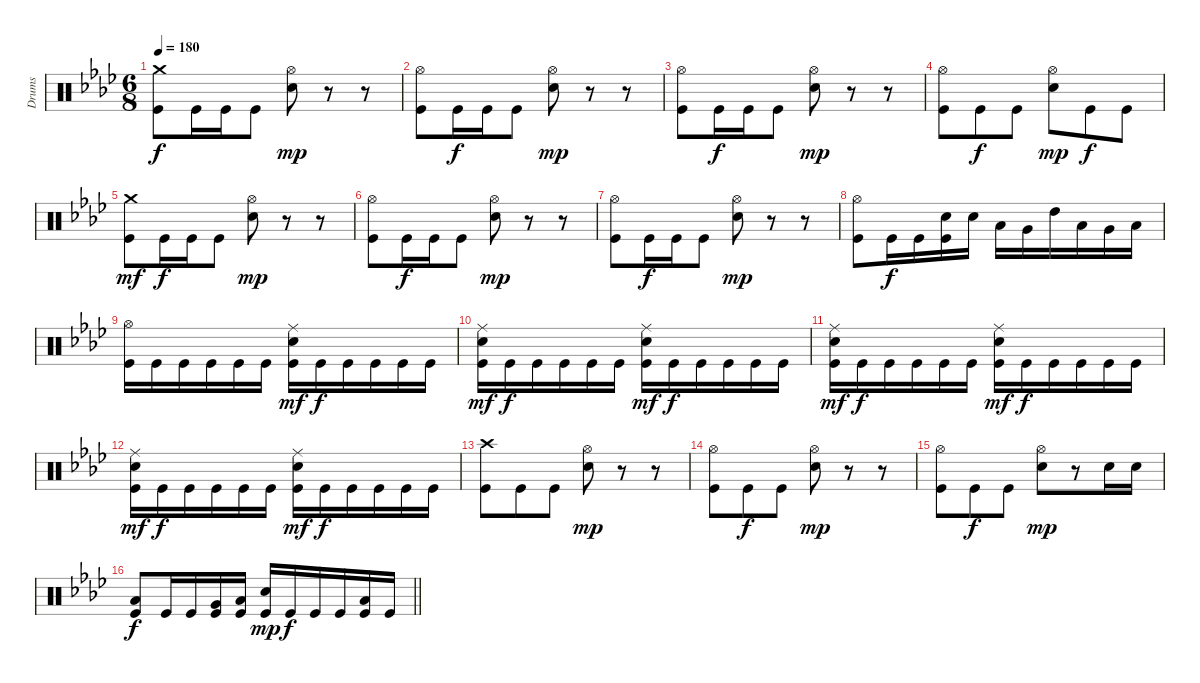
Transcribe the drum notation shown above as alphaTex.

\track ("Drums" "Drums") {instrument percussion}
\staff {score}
\articulation defaults
\ts (6 8)
\tempo 180
\clef neutral
\ks fminor
("Crash medium (hit)" "Kick (hit)").8{dy f} "Kick (hit)".16 "Kick (hit)".16 "Kick (hit)".8 ("Hi-Hat (open)" "Snare (hit) 2").8{dy mp} r.8 r.8 |
("Hi-Hat (open)" "Kick (hit)").8 "Kick (hit)".16{dy f} "Kick (hit)".16 "Kick (hit)".8 ("Hi-Hat (open)" "Snare (hit) 2").8{dy mp} r.8 r.8 |
("Hi-Hat (open)" "Kick (hit)").8 "Kick (hit)".16{dy f} "Kick (hit)".16 "Kick (hit)".8 ("Hi-Hat (open)" "Snare (hit) 2").8{dy mp} r.8 r.8 |
("Hi-Hat (open)" "Kick (hit)").8 "Kick (hit)".8{dy f} "Kick (hit)".8 ("Hi-Hat (open)" "Snare (hit) 2").8{dy mp} "Kick (hit)".8{dy f} "Kick (hit)".8 |
("Crash medium (hit)" "Kick (hit)").8{dy mf} "Kick (hit)".16{dy f} "Kick (hit)".16 "Kick (hit)".8 ("Hi-Hat (open)" "Snare (hit) 2").8{dy mp} r.8 r.8 |
("Hi-Hat (open)" "Kick (hit)").8 "Kick (hit)".16{dy f} "Kick (hit)".16 "Kick (hit)".8 ("Hi-Hat (open)" "Snare (hit) 2").8{dy mp} r.8 r.8 |
("Hi-Hat (open)" "Kick (hit)").8 "Kick (hit)".16{dy f} "Kick (hit)".16 "Kick (hit)".8 ("Hi-Hat (open)" "Snare (hit) 2").8{dy mp} r.8 r.8 |
("Hi-Hat (open)" "Kick (hit)").8 "Kick (hit)".16{dy f} "Kick (hit)".16 ("Snare (hit) 2" "Kick (hit)").16 "Snare (hit) 2".16 "Low Tom (hit)".16 "Very Low Tom (hit)".16 "High Tom (hit)".16 "Low Tom (hit)".16 "Very Low Tom (hit)".16 "Low Floor Tom (hit)".16 |
("Hi-Hat (open)" "Kick (hit)").16 "Kick (hit)".16 "Kick (hit)".16 "Kick (hit)".16 "Kick (hit)".16 "Kick (hit)".16 ("Ride (middle)" "Snare (hit) 2" "Kick (hit)").16{dy mf} "Kick (hit)".16{dy f} "Kick (hit)".16 "Kick (hit)".16 "Kick (hit)".16 "Kick (hit)".16 |
("Ride (middle)" "Snare (hit) 2" "Kick (hit)").16{dy mf} "Kick (hit)".16{dy f} "Kick (hit)".16 "Kick (hit)".16 "Kick (hit)".16 "Kick (hit)".16 ("Ride (middle)" "Snare (hit) 2" "Kick (hit)").16{dy mf} "Kick (hit)".16{dy f} "Kick (hit)".16 "Kick (hit)".16 "Kick (hit)".16 "Kick (hit)".16 |
("Ride (middle)" "Snare (hit) 2" "Kick (hit)").16{dy mf} "Kick (hit)".16{dy f} "Kick (hit)".16 "Kick (hit)".16 "Kick (hit)".16 "Kick (hit)".16 ("Ride (middle)" "Snare (hit) 2" "Kick (hit)").16{dy mf} "Kick (hit)".16{dy f} "Kick (hit)".16 "Kick (hit)".16 "Kick (hit)".16 "Kick (hit)".16 |
("Ride (middle)" "Snare (hit) 2" "Kick (hit)").16{dy mf} "Kick (hit)".16{dy f} "Kick (hit)".16 "Kick (hit)".16 "Kick (hit)".16 "Kick (hit)".16 ("Ride (middle)" "Snare (hit) 2" "Kick (hit)").16{dy mf} "Kick (hit)".16{dy f} "Kick (hit)".16 "Kick (hit)".16 "Kick (hit)".16 "Kick (hit)".16 |
("Crash high (hit)" "Kick (hit)").8 "Kick (hit)".8 "Kick (hit)".8 ("Hi-Hat (open)" "Snare (hit) 2").8{dy mp} r.8 r.8 |
("Hi-Hat (open)" "Kick (hit)").8 "Kick (hit)".8{dy f} "Kick (hit)".8 ("Hi-Hat (open)" "Snare (hit) 2").8{dy mp} r.8 r.8 |
("Hi-Hat (open)" "Kick (hit)").8 "Kick (hit)".8{dy f} "Kick (hit)".8 ("Hi-Hat (open)" "Snare (hit) 2").8{dy mp} r.8 "Snare (hit) 2".16 "Snare (hit) 2".16 |
\barLineRight lightlight
("Low Floor Tom (hit)" "Kick (hit)").8{dy f} "Kick (hit)".16 "Kick (hit)".16 ("Very Low Tom (hit)" "Kick (hit)").16 ("Low Floor Tom (hit)" "Kick (hit)").16 ("Snare (hit) 2" "Kick (hit)").16{dy mp} "Kick (hit)".16{dy f} "Kick (hit)".16 "Kick (hit)".16 ("Low Floor Tom (hit)" "Kick (hit)").16 "Kick (hit)".16
